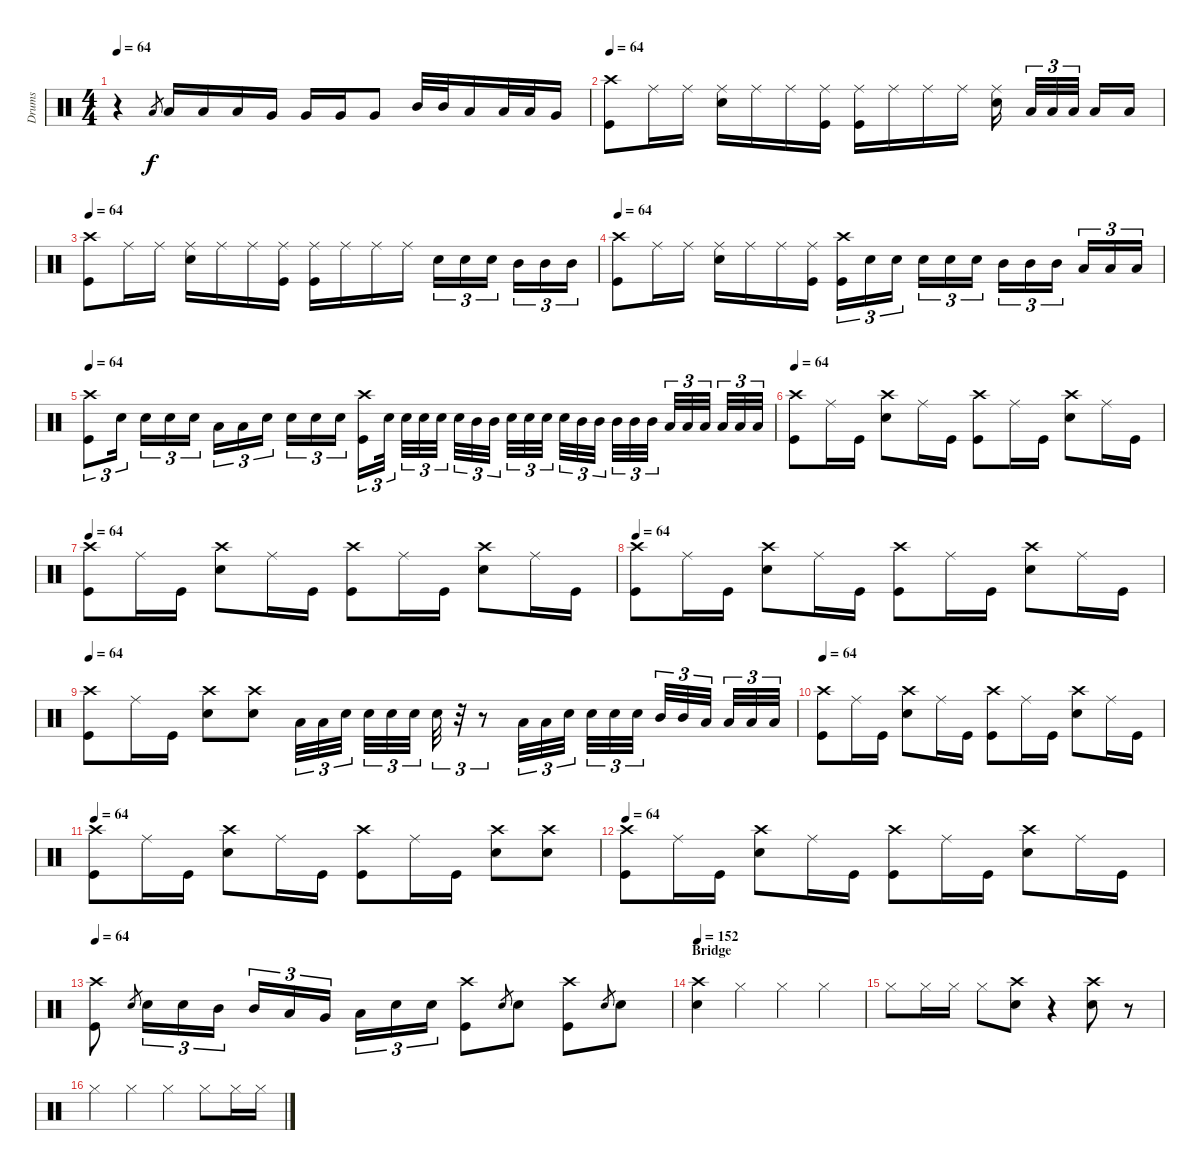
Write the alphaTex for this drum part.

\track ("Drums" "Drums") {instrument percussion}
\staff {score}
\articulation defaults
\ts (4 4)
\tempo 64
\clef neutral
\ks c
r.4{dy f} "Low Tom (hit)".8{gr} "Low Tom (hit)".16 "Low Tom (hit)".16 "Low Tom (hit)".16 "Very Low Tom (hit)".16 "Very Low Tom (hit)".16 "Very Low Tom (hit)".16 "Very Low Tom (hit)".8 "Mid Tom (hit)".32 "Mid Tom (hit)".32 "Low Tom (hit)".16 "Low Tom (hit)".32 "Low Tom (hit)".32 "Very Low Tom (hit)".16 |
\tempo 64
("Crash high (hit)" "Kick (hit)").8 "Ride (middle)".16 "Ride (middle)".16 ("Ride (middle)" "Snare (hit) 2").16 "Ride (middle)".16 "Ride (middle)".16 ("Ride (middle)" "Kick (hit)").16 ("Ride (middle)" "Kick (hit)").16 "Ride (middle)".16 "Ride (middle)".16 "Ride (middle)".16 ("Ride (middle)" "Snare (hit) 2").16 "Low Tom (hit)".32{tu (3 2)} "Low Tom (hit)".32{tu (3 2)} "Low Tom (hit)".32{tu (3 2)} "Low Tom (hit)".16 "Low Tom (hit)".16 |
\tempo 64
("Crash high (hit)" "Kick (hit)").8 "Ride (middle)".16 "Ride (middle)".16 ("Ride (middle)" "Snare (hit) 2").16 "Ride (middle)".16 "Ride (middle)".16 ("Ride (middle)" "Kick (hit)").16 ("Ride (middle)" "Kick (hit)").16 "Ride (middle)".16 "Ride (middle)".16 "Ride (middle)".16 "Snare (hit) 2".16{tu (3 2)} "Snare (hit) 2".16{tu (3 2)} "Snare (hit) 2".16{tu (3 2)} "Mid Tom (hit)".16{tu (3 2)} "Mid Tom (hit)".16{tu (3 2)} "Mid Tom (hit)".16{tu (3 2)} |
\tempo 64
("Crash high (hit)" "Kick (hit)").8 "Ride (middle)".16 "Ride (middle)".16 ("Ride (middle)" "Snare (hit) 2").16 "Ride (middle)".16 "Ride (middle)".16 ("Ride (middle)" "Kick (hit)").16 ("Crash high (hit)" "Kick (hit)").16{tu (3 2)} "Snare (hit) 2".16{tu (3 2)} "Snare (hit) 2".16{tu (3 2)} "Snare (hit) 2".16{tu (3 2)} "Snare (hit) 2".16{tu (3 2)} "Snare (hit) 2".16{tu (3 2)} "Mid Tom (hit)".16{tu (3 2)} "Mid Tom (hit)".16{tu (3 2)} "Mid Tom (hit)".16{tu (3 2)} "Low Tom (hit)".16{tu (3 2)} "Low Tom (hit)".16{tu (3 2)} "Low Tom (hit)".16{tu (3 2)} |
\tempo 64
("Crash high (hit)" "Kick (hit)").8{tu (3 2)} "Snare (hit) 2".16{tu (3 2)} "Snare (hit) 2".16{tu (3 2)} "Snare (hit) 2".16{tu (3 2)} "Snare (hit) 2".16{tu (3 2)} "Low Tom (hit)".16{tu (3 2)} "Low Tom (hit)".16{tu (3 2)} "Snare (hit) 2".16{tu (3 2)} "Snare (hit) 2".16{tu (3 2)} "Snare (hit) 2".16{tu (3 2)} "Snare (hit) 2".16{tu (3 2)} ("Crash high (hit)" "Kick (hit)").16{tu (3 2)} "Snare (hit) 2".32{tu (3 2)} "Snare (hit) 2".32{tu (3 2)} "Snare (hit) 2".32{tu (3 2)} "Snare (hit) 2".32{tu (3 2)} "Snare (hit) 2".32{tu (3 2)} "Mid Tom (hit)".32{tu (3 2)} "Mid Tom (hit)".32{tu (3 2)} "Snare (hit) 2".32{tu (3 2)} "Snare (hit) 2".32{tu (3 2)} "Snare (hit) 2".32{tu (3 2)} "Snare (hit) 2".32{tu (3 2)} "Mid Tom (hit)".32{tu (3 2)} "Mid Tom (hit)".32{tu (3 2)} "Mid Tom (hit)".32{tu (3 2)} "Mid Tom (hit)".32{tu (3 2)} "Mid Tom (hit)".32{tu (3 2)} "Low Tom (hit)".32{tu (3 2)} "Low Tom (hit)".32{tu (3 2)} "Low Tom (hit)".32{tu (3 2)} "Low Tom (hit)".32{tu (3 2)} "Low Tom (hit)".32{tu (3 2)} "Low Tom (hit)".32{tu (3 2)} |
\tempo 64
("Crash high (hit)" "Kick (hit)").8 "Ride (middle)".16 "Kick (hit)".16 ("Crash high (hit)" "Snare (hit) 2").8 "Ride (middle)".16 "Kick (hit)".16 ("Crash high (hit)" "Kick (hit)").8 "Ride (middle)".16 "Kick (hit)".16 ("Crash high (hit)" "Snare (hit) 2").8 "Ride (middle)".16 "Kick (hit)".16 |
\tempo 64
("Crash high (hit)" "Kick (hit)").8 "Ride (middle)".16 "Kick (hit)".16 ("Crash high (hit)" "Snare (hit) 2").8 "Ride (middle)".16 "Kick (hit)".16 ("Crash high (hit)" "Kick (hit)").8 "Ride (middle)".16 "Kick (hit)".16 ("Crash high (hit)" "Snare (hit) 2").8 "Ride (middle)".16 "Kick (hit)".16 |
\tempo 64
("Crash high (hit)" "Kick (hit)").8 "Ride (middle)".16 "Kick (hit)".16 ("Crash high (hit)" "Snare (hit) 2").8 "Ride (middle)".16 "Kick (hit)".16 ("Crash high (hit)" "Kick (hit)").8 "Ride (middle)".16 "Kick (hit)".16 ("Crash high (hit)" "Snare (hit) 2").8 "Ride (middle)".16 "Kick (hit)".16 |
\tempo 64
("Crash high (hit)" "Kick (hit)").8 "Ride (middle)".16 "Kick (hit)".16 ("Crash high (hit)" "Snare (hit) 2").8 ("Crash high (hit)" "Snare (hit) 2").8 "Low Tom (hit)".32{tu (3 2)} "Low Tom (hit)".32{tu (3 2)} "Snare (hit) 2".32{tu (3 2)} "Snare (hit) 2".32{tu (3 2)} "Snare (hit) 2".32{tu (3 2)} "Snare (hit) 2".32{tu (3 2)} "Snare (hit) 2".32{tu (3 2)} r.32{tu (3 2)} r.8{tu (3 2)} "Low Tom (hit)".32{tu (3 2)} "Low Tom (hit)".32{tu (3 2)} "Snare (hit) 2".32{tu (3 2)} "Snare (hit) 2".32{tu (3 2)} "Snare (hit) 2".32{tu (3 2)} "Snare (hit) 2".32{tu (3 2)} "Mid Tom (hit)".32{tu (3 2)} "Mid Tom (hit)".32{tu (3 2)} "Low Tom (hit)".32{tu (3 2)} "Low Tom (hit)".32{tu (3 2)} "Low Tom (hit)".32{tu (3 2)} "Low Tom (hit)".32{tu (3 2)} |
\tempo 64
("Crash high (hit)" "Kick (hit)").8 "Ride (middle)".16 "Kick (hit)".16 ("Crash high (hit)" "Snare (hit) 2").8 "Ride (middle)".16 "Kick (hit)".16 ("Crash high (hit)" "Kick (hit)").8 "Ride (middle)".16 "Kick (hit)".16 ("Crash high (hit)" "Snare (hit) 2").8 "Ride (middle)".16 "Kick (hit)".16 |
\tempo 64
("Crash high (hit)" "Kick (hit)").8 "Ride (middle)".16 "Kick (hit)".16 ("Crash high (hit)" "Snare (hit) 2").8 "Ride (middle)".16 "Kick (hit)".16 ("Crash high (hit)" "Kick (hit)").8 "Ride (middle)".16 "Kick (hit)".16 ("Crash high (hit)" "Snare (hit) 2").8 ("Crash high (hit)" "Snare (hit) 2").8 |
\tempo 64
("Crash high (hit)" "Kick (hit)").8 "Ride (middle)".16 "Kick (hit)".16 ("Crash high (hit)" "Snare (hit) 2").8 "Ride (middle)".16 "Kick (hit)".16 ("Crash high (hit)" "Kick (hit)").8 "Ride (middle)".16 "Kick (hit)".16 ("Crash high (hit)" "Snare (hit) 2").8 "Ride (middle)".16 "Kick (hit)".16 |
\tempo 64
("Crash high (hit)" "Kick (hit)").8 "Snare (hit) 2".8{gr} "Snare (hit) 2".16{tu (3 2)} "Snare (hit) 2".16{tu (3 2)} "Mid Tom (hit)".16{tu (3 2)} "Mid Tom (hit)".16{tu (3 2)} "Low Tom (hit)".16{tu (3 2)} "Very Low Tom (hit)".16{tu (3 2)} "Low Floor Tom (hit)".16{tu (3 2)} "Snare (hit) 2".16{tu (3 2)} "Snare (hit) 2".16{tu (3 2)} ("Crash high (hit)" "Kick (hit)").8 "Snare (hit) 2".8{gr} "Snare (hit) 2".8 ("Crash high (hit)" "Kick (hit)").8 "Snare (hit) 2".8{gr} "Snare (hit) 2".8 |
\section ("" "Bridge")
\tempo 152
("Crash high (hit)" "Snare (hit) 2").4 "Hi-Hat (closed)".4 "Hi-Hat (closed)".4 "Hi-Hat (closed)".4 |
"Hi-Hat (closed)".8 "Hi-Hat (closed)".16 "Hi-Hat (closed)".16 "Hi-Hat (closed)".8 ("Crash high (hit)" "Snare (hit) 2").8 r.4 ("Crash high (hit)" "Snare (hit) 2").8 r.8 |
"Hi-Hat (closed)".4 "Hi-Hat (closed)".4 "Hi-Hat (closed)".4 "Hi-Hat (closed)".8 "Hi-Hat (closed)".16 "Hi-Hat (closed)".16
